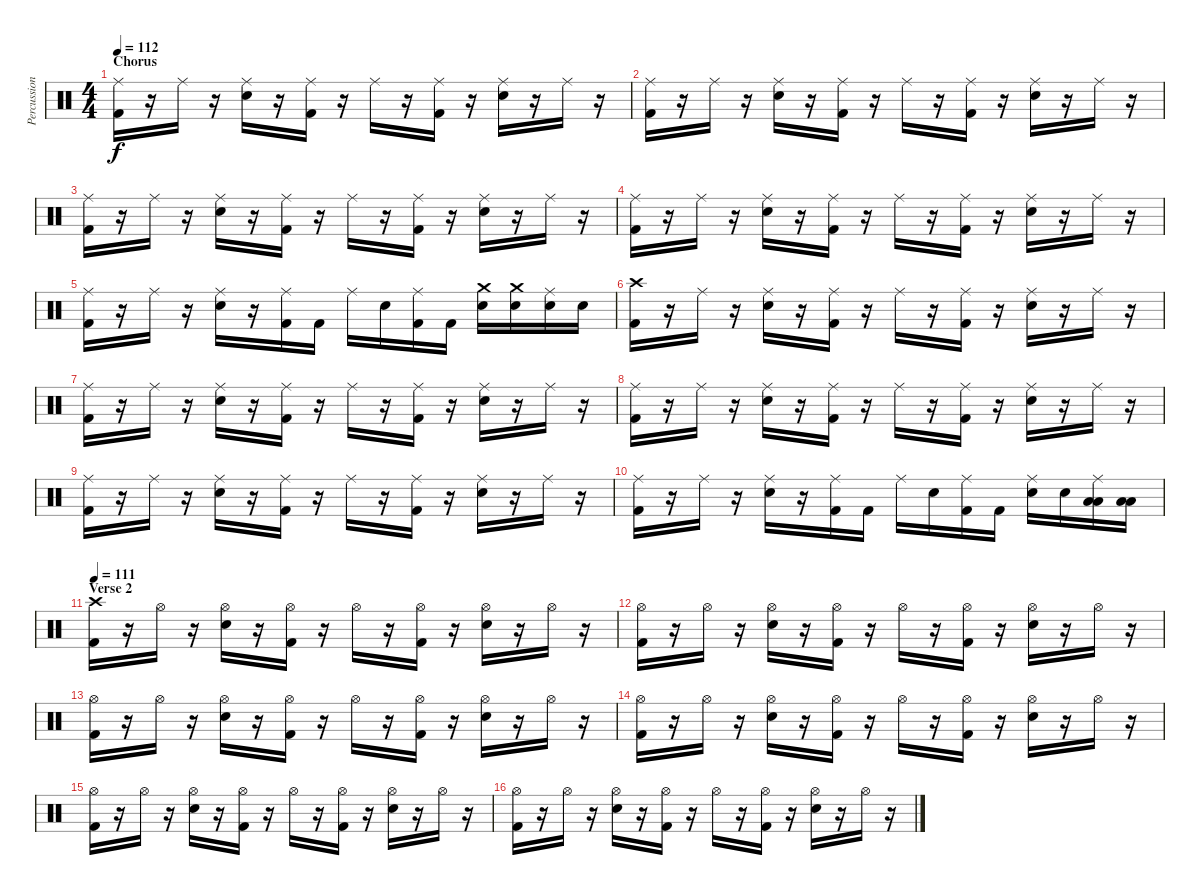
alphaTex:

\track ("Percussion" "Percussion") {instrument percussion}
\staff {score}
\articulation defaults
\ts (4 4)
\section ("" "Chorus")
\tempo 112
\clef neutral
\ks c
("Ride (middle)" "Kick (hit) 2").16{dy f} r.16 "Ride (middle)".16 r.16 ("Ride (middle)" "Snare (hit) 2").16 r.16 ("Ride (middle)" "Kick (hit) 2").16 r.16 "Ride (middle)".16 r.16 ("Ride (middle)" "Kick (hit) 2").16 r.16 ("Ride (middle)" "Snare (hit) 2").16 r.16 "Ride (middle)".16 r.16 |
("Ride (middle)" "Kick (hit) 2").16 r.16 "Ride (middle)".16 r.16 ("Ride (middle)" "Snare (hit) 2").16 r.16 ("Ride (middle)" "Kick (hit) 2").16 r.16 "Ride (middle)".16 r.16 ("Ride (middle)" "Kick (hit) 2").16 r.16 ("Ride (middle)" "Snare (hit) 2").16 r.16 "Ride (middle)".16 r.16 |
("Ride (middle)" "Kick (hit) 2").16 r.16 "Ride (middle)".16 r.16 ("Ride (middle)" "Snare (hit) 2").16 r.16 ("Ride (middle)" "Kick (hit) 2").16 r.16 "Ride (middle)".16 r.16 ("Ride (middle)" "Kick (hit) 2").16 r.16 ("Ride (middle)" "Snare (hit) 2").16 r.16 "Ride (middle)".16 r.16 |
("Ride (middle)" "Kick (hit) 2").16 r.16 "Ride (middle)".16 r.16 ("Ride (middle)" "Snare (hit) 2").16 r.16 ("Ride (middle)" "Kick (hit) 2").16 r.16 "Ride (middle)".16 r.16 ("Ride (middle)" "Kick (hit) 2").16 r.16 ("Ride (middle)" "Snare (hit) 2").16 r.16 "Ride (middle)".16 r.16 |
("Ride (middle)" "Kick (hit) 2").16 r.16 "Ride (middle)".16 r.16 ("Ride (middle)" "Snare (hit) 2").16 r.16 ("Ride (middle)" "Kick (hit) 2").16 "Kick (hit) 2".16 "Ride (middle)".16 "Snare (hit) 2".16 ("Ride (middle)" "Kick (hit) 2").16 "Kick (hit) 2".16 ("Crash medium (hit)" "Snare (hit) 2").16 ("Crash medium (hit)" "Snare (hit) 2").16 ("Ride (middle)" "Snare (hit) 2").16 "Snare (hit) 2".16 |
("Crash high (hit)" "Kick (hit) 2").16 r.16 "Ride (middle)".16 r.16 ("Ride (middle)" "Snare (hit) 2").16 r.16 ("Ride (middle)" "Kick (hit) 2").16 r.16 "Ride (middle)".16 r.16 ("Ride (middle)" "Kick (hit) 2").16 r.16 ("Ride (middle)" "Snare (hit) 2").16 r.16 "Ride (middle)".16 r.16 |
("Ride (middle)" "Kick (hit) 2").16 r.16 "Ride (middle)".16 r.16 ("Ride (middle)" "Snare (hit) 2").16 r.16 ("Ride (middle)" "Kick (hit) 2").16 r.16 "Ride (middle)".16 r.16 ("Ride (middle)" "Kick (hit) 2").16 r.16 ("Ride (middle)" "Snare (hit) 2").16 r.16 "Ride (middle)".16 r.16 |
("Ride (middle)" "Kick (hit) 2").16 r.16 "Ride (middle)".16 r.16 ("Ride (middle)" "Snare (hit) 2").16 r.16 ("Ride (middle)" "Kick (hit) 2").16 r.16 "Ride (middle)".16 r.16 ("Ride (middle)" "Kick (hit) 2").16 r.16 ("Ride (middle)" "Snare (hit) 2").16 r.16 "Ride (middle)".16 r.16 |
("Ride (middle)" "Kick (hit) 2").16 r.16 "Ride (middle)".16 r.16 ("Ride (middle)" "Snare (hit) 2").16 r.16 ("Ride (middle)" "Kick (hit) 2").16 r.16 "Ride (middle)".16 r.16 ("Ride (middle)" "Kick (hit) 2").16 r.16 ("Ride (middle)" "Snare (hit) 2").16 r.16 "Ride (middle)".16 r.16 |
("Ride (middle)" "Kick (hit) 2").16 r.16 "Ride (middle)".16 r.16 ("Ride (middle)" "Snare (hit) 2").16 r.16 ("Ride (middle)" "Kick (hit) 2").16 "Kick (hit) 2".16 "Ride (middle)".16 "Snare (hit) 2".16 ("Ride (middle)" "Kick (hit) 2").16 "Kick (hit) 2".16 ("Ride (middle)" "Snare (hit) 2").16 "Snare (hit) 2".16 ("Ride (middle)" "Low Tom (hit)" "Low Tom (hit)").16 ("Low Tom (hit)" "Low Tom (hit)").16 |
\section ("" "Verse 2")
\tempo 111
("Crash high (hit)" "Kick (hit) 2").16 r.16 "Hi-Hat (open)".16 r.16 ("Hi-Hat (open)" "Snare (hit) 2").16 r.16 ("Hi-Hat (open)" "Kick (hit) 2").16 r.16 "Hi-Hat (open)".16 r.16 ("Hi-Hat (open)" "Kick (hit) 2").16 r.16 ("Hi-Hat (open)" "Snare (hit) 2").16 r.16 "Hi-Hat (open)".16 r.16 |
("Hi-Hat (open)" "Kick (hit) 2").16 r.16 "Hi-Hat (open)".16 r.16 ("Hi-Hat (open)" "Snare (hit) 2").16 r.16 ("Hi-Hat (open)" "Kick (hit) 2").16 r.16 "Hi-Hat (open)".16 r.16 ("Hi-Hat (open)" "Kick (hit) 2").16 r.16 ("Hi-Hat (open)" "Snare (hit) 2").16 r.16 "Hi-Hat (open)".16 r.16 |
("Hi-Hat (open)" "Kick (hit) 2").16 r.16 "Hi-Hat (open)".16 r.16 ("Hi-Hat (open)" "Snare (hit) 2").16 r.16 ("Hi-Hat (open)" "Kick (hit) 2").16 r.16 "Hi-Hat (open)".16 r.16 ("Hi-Hat (open)" "Kick (hit) 2").16 r.16 ("Hi-Hat (open)" "Snare (hit) 2").16 r.16 "Hi-Hat (open)".16 r.16 |
("Hi-Hat (open)" "Kick (hit) 2").16 r.16 "Hi-Hat (open)".16 r.16 ("Hi-Hat (open)" "Snare (hit) 2").16 r.16 ("Hi-Hat (open)" "Kick (hit) 2").16 r.16 "Hi-Hat (open)".16 r.16 ("Hi-Hat (open)" "Kick (hit) 2").16 r.16 ("Hi-Hat (open)" "Snare (hit) 2").16 r.16 "Hi-Hat (open)".16 r.16 |
("Hi-Hat (open)" "Kick (hit) 2").16 r.16 "Hi-Hat (open)".16 r.16 ("Hi-Hat (open)" "Snare (hit) 2").16 r.16 ("Hi-Hat (open)" "Kick (hit) 2").16 r.16 "Hi-Hat (open)".16 r.16 ("Hi-Hat (open)" "Kick (hit) 2").16 r.16 ("Hi-Hat (open)" "Snare (hit) 2").16 r.16 "Hi-Hat (open)".16 r.16 |
("Hi-Hat (open)" "Kick (hit) 2").16 r.16 "Hi-Hat (open)".16 r.16 ("Hi-Hat (open)" "Snare (hit) 2").16 r.16 ("Hi-Hat (open)" "Kick (hit) 2").16 r.16 "Hi-Hat (open)".16 r.16 ("Hi-Hat (open)" "Kick (hit) 2").16 r.16 ("Hi-Hat (open)" "Snare (hit) 2").16 r.16 "Hi-Hat (open)".16 r.16
